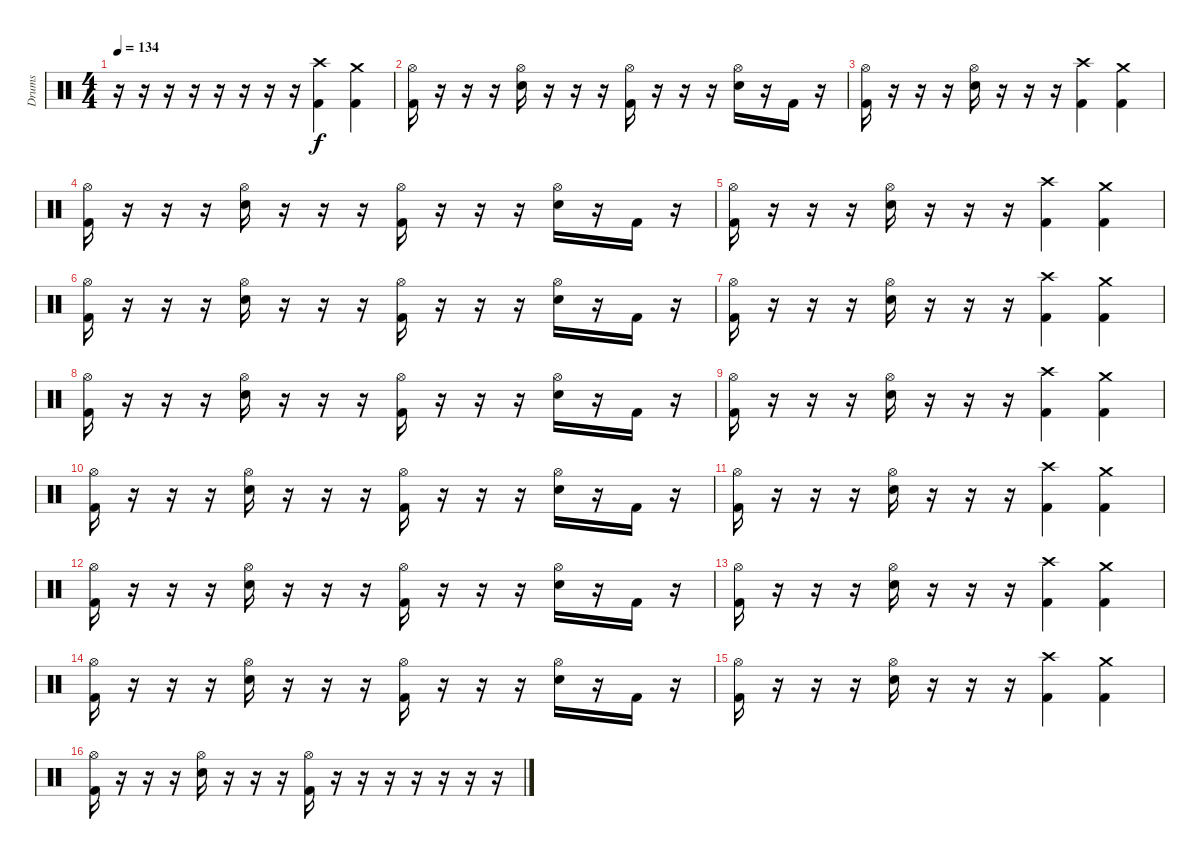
\track ("Drums" "Drums") {instrument percussion}
\staff {score}
\articulation defaults
\ts (4 4)
\tempo 134
\clef neutral
\ks c
r.16{dy f} r.16 r.16 r.16 r.16 r.16 r.16 r.16 ("Crash high (hit)" "Kick (hit) 2").4 ("Crash medium (hit)" "Kick (hit) 2").4 |
("Kick (hit) 2" "Hi-Hat (open)").16 r.16 r.16 r.16 ("Snare (hit) 2" "Hi-Hat (open)").16 r.16 r.16 r.16 ("Kick (hit) 2" "Hi-Hat (open)").16 r.16 r.16 r.16 ("Snare (hit) 2" "Hi-Hat (open)").16 r.16 "Kick (hit) 2".16 r.16 |
("Kick (hit) 2" "Hi-Hat (open)").16 r.16 r.16 r.16 ("Snare (hit) 2" "Hi-Hat (open)").16 r.16 r.16 r.16 ("Crash high (hit)" "Kick (hit) 2").4 ("Crash medium (hit)" "Kick (hit) 2").4 |
("Kick (hit) 2" "Hi-Hat (open)").16 r.16 r.16 r.16 ("Snare (hit) 2" "Hi-Hat (open)").16 r.16 r.16 r.16 ("Kick (hit) 2" "Hi-Hat (open)").16 r.16 r.16 r.16 ("Snare (hit) 2" "Hi-Hat (open)").16 r.16 "Kick (hit) 2".16 r.16 |
("Kick (hit) 2" "Hi-Hat (open)").16 r.16 r.16 r.16 ("Snare (hit) 2" "Hi-Hat (open)").16 r.16 r.16 r.16 ("Crash high (hit)" "Kick (hit) 2").4 ("Crash medium (hit)" "Kick (hit) 2").4 |
("Kick (hit) 2" "Hi-Hat (open)").16 r.16 r.16 r.16 ("Snare (hit) 2" "Hi-Hat (open)").16 r.16 r.16 r.16 ("Kick (hit) 2" "Hi-Hat (open)").16 r.16 r.16 r.16 ("Snare (hit) 2" "Hi-Hat (open)").16 r.16 "Kick (hit) 2".16 r.16 |
("Kick (hit) 2" "Hi-Hat (open)").16 r.16 r.16 r.16 ("Snare (hit) 2" "Hi-Hat (open)").16 r.16 r.16 r.16 ("Crash high (hit)" "Kick (hit) 2").4 ("Crash medium (hit)" "Kick (hit) 2").4 |
("Kick (hit) 2" "Hi-Hat (open)").16 r.16 r.16 r.16 ("Snare (hit) 2" "Hi-Hat (open)").16 r.16 r.16 r.16 ("Kick (hit) 2" "Hi-Hat (open)").16 r.16 r.16 r.16 ("Snare (hit) 2" "Hi-Hat (open)").16 r.16 "Kick (hit) 2".16 r.16 |
("Kick (hit) 2" "Hi-Hat (open)").16 r.16 r.16 r.16 ("Snare (hit) 2" "Hi-Hat (open)").16 r.16 r.16 r.16 ("Crash high (hit)" "Kick (hit) 2").4 ("Crash medium (hit)" "Kick (hit) 2").4 |
("Kick (hit) 2" "Hi-Hat (open)").16 r.16 r.16 r.16 ("Snare (hit) 2" "Hi-Hat (open)").16 r.16 r.16 r.16 ("Kick (hit) 2" "Hi-Hat (open)").16 r.16 r.16 r.16 ("Snare (hit) 2" "Hi-Hat (open)").16 r.16 "Kick (hit) 2".16 r.16 |
("Kick (hit) 2" "Hi-Hat (open)").16 r.16 r.16 r.16 ("Snare (hit) 2" "Hi-Hat (open)").16 r.16 r.16 r.16 ("Crash high (hit)" "Kick (hit) 2").4 ("Crash medium (hit)" "Kick (hit) 2").4 |
("Kick (hit) 2" "Hi-Hat (open)").16 r.16 r.16 r.16 ("Snare (hit) 2" "Hi-Hat (open)").16 r.16 r.16 r.16 ("Kick (hit) 2" "Hi-Hat (open)").16 r.16 r.16 r.16 ("Snare (hit) 2" "Hi-Hat (open)").16 r.16 "Kick (hit) 2".16 r.16 |
("Kick (hit) 2" "Hi-Hat (open)").16 r.16 r.16 r.16 ("Snare (hit) 2" "Hi-Hat (open)").16 r.16 r.16 r.16 ("Crash high (hit)" "Kick (hit) 2").4 ("Crash medium (hit)" "Kick (hit) 2").4 |
("Kick (hit) 2" "Hi-Hat (open)").16 r.16 r.16 r.16 ("Snare (hit) 2" "Hi-Hat (open)").16 r.16 r.16 r.16 ("Kick (hit) 2" "Hi-Hat (open)").16 r.16 r.16 r.16 ("Snare (hit) 2" "Hi-Hat (open)").16 r.16 "Kick (hit) 2".16 r.16 |
("Kick (hit) 2" "Hi-Hat (open)").16 r.16 r.16 r.16 ("Snare (hit) 2" "Hi-Hat (open)").16 r.16 r.16 r.16 ("Crash high (hit)" "Kick (hit) 2").4 ("Crash medium (hit)" "Kick (hit) 2").4 |
("Kick (hit) 2" "Hi-Hat (open)").16 r.16 r.16 r.16 ("Snare (hit) 2" "Hi-Hat (open)").16 r.16 r.16 r.16 ("Kick (hit) 2" "Hi-Hat (open)").16 r.16 r.16 r.16 r.16 r.16 r.16 r.16
